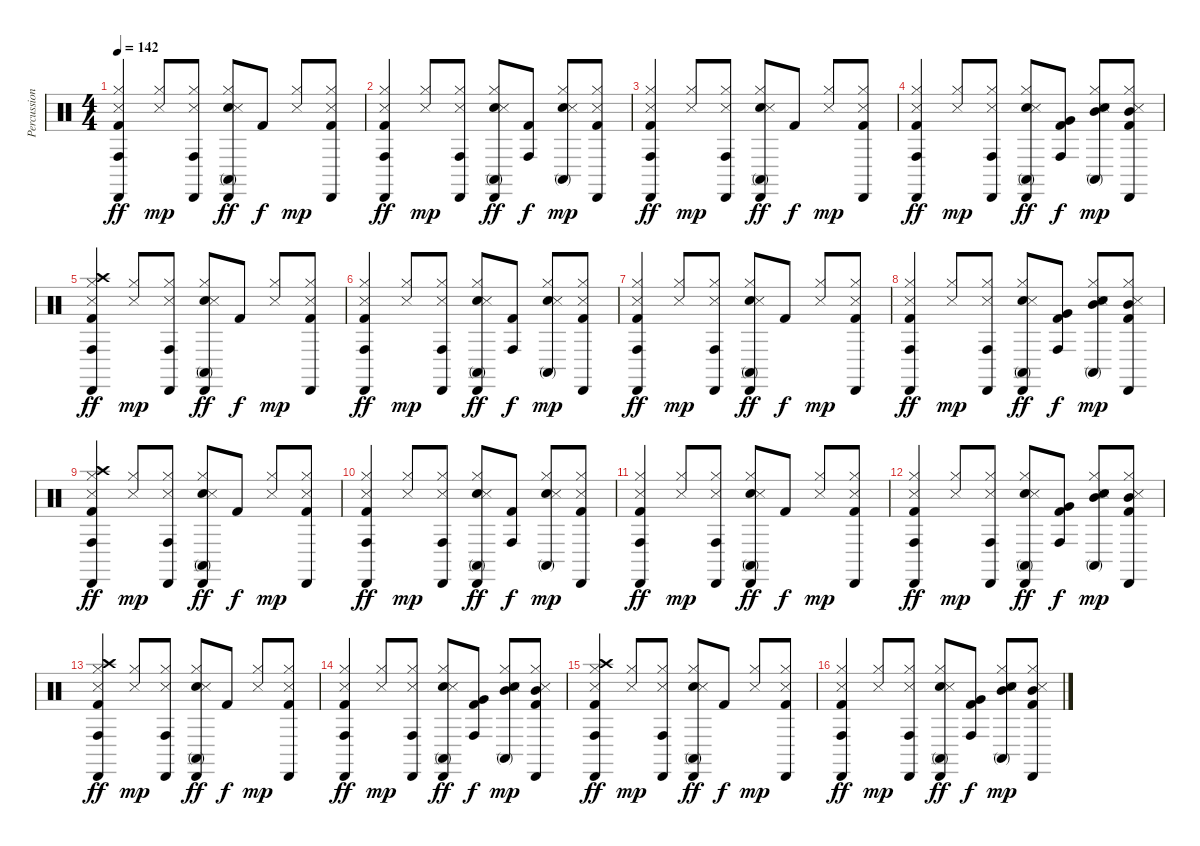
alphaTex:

\track ("Percussion Booster" "Percussion") {instrument percussion}
\staff {score}
\articulation defaults
\ts (4 4)
\tempo 142
\clef neutral
\ks c
("Conga high (hit)" "Cabasa (hit)" "Hi-Hat (closed)" "Snare (side stick) 3" "Kick (hit) 2").4{dy ff} ("Hi-Hat (closed)" "Snare (side stick) 3").8{dy mp} ("Conga high (hit)" "Cabasa (hit)" "Hi-Hat (closed)" "Snare (side stick) 3").8 ("Conga high (mute)" "Cabasa (hit)" "Hi-Hat (closed)" "Hand Clap (hit)" "Snare (side stick) 3").8{dy ff} "Kick (hit) 2".8{dy f} ("Hi-Hat (closed)" "Snare (side stick) 3").8{dy mp} ("Cabasa (hit)" "Hi-Hat (closed)" "Snare (side stick) 3" "Kick (hit) 2").8 |
("Conga high (hit)" "Cabasa (hit)" "Hi-Hat (closed)" "Snare (side stick) 3" "Kick (hit) 2").4{dy ff} ("Hi-Hat (closed)" "Snare (side stick) 3").8{dy mp} ("Conga high (hit)" "Cabasa (hit)" "Hi-Hat (closed)" "Snare (side stick) 3").8 ("Conga high (mute)" "Cabasa (hit)" "Hi-Hat (closed)" "Hand Clap (hit)" "Snare (side stick) 3").8{dy ff} ("Conga high (hit)" "Kick (hit) 2").8{dy f} ("Conga high (mute)" "Hi-Hat (closed)" "Hand Clap (hit)" "Snare (side stick) 3").8{dy mp} ("Cabasa (hit)" "Hi-Hat (closed)" "Snare (side stick) 3" "Kick (hit) 2").8 |
("Conga high (hit)" "Cabasa (hit)" "Hi-Hat (closed)" "Snare (side stick) 3" "Kick (hit) 2").4{dy ff} ("Hi-Hat (closed)" "Snare (side stick) 3").8{dy mp} ("Conga high (hit)" "Cabasa (hit)" "Hi-Hat (closed)" "Snare (side stick) 3").8 ("Conga high (mute)" "Cabasa (hit)" "Hi-Hat (closed)" "Hand Clap (hit)" "Snare (side stick) 3").8{dy ff} "Kick (hit) 2".8{dy f} ("Hi-Hat (closed)" "Snare (side stick) 3").8{dy mp} ("Cabasa (hit)" "Hi-Hat (closed)" "Snare (side stick) 3" "Kick (hit) 2").8 |
("Conga high (hit)" "Cabasa (hit)" "Hi-Hat (closed)" "Snare (side stick) 3" "Kick (hit) 2").4{dy ff} ("Hi-Hat (closed)" "Snare (side stick) 3").8{dy mp} ("Conga high (hit)" "Cabasa (hit)" "Hi-Hat (closed)" "Snare (side stick) 3").8 ("Conga high (mute)" "Cabasa (hit)" "Hi-Hat (closed)" "Hand Clap (hit)" "Snare (side stick) 3").8{dy ff} ("Conga high (hit)" "Very Low Tom (hit)" "Kick (hit) 2").8{dy f} ("Conga high (mute)" "Mid Tom (hit)" "Hi-Hat (closed)" "Hand Clap (hit)" "Snare (side stick) 3").8{dy mp} ("Cabasa (hit)" "Mid Tom (hit)" "Hi-Hat (closed)" "Snare (side stick) 3" "Kick (hit) 2").8 |
("Conga high (hit)" "Cabasa (hit)" "Crash high (hit)" "Hi-Hat (closed)" "Snare (side stick) 3" "Kick (hit) 2").4{dy ff} ("Hi-Hat (closed)" "Snare (side stick) 3").8{dy mp} ("Conga high (hit)" "Cabasa (hit)" "Hi-Hat (closed)" "Snare (side stick) 3").8 ("Conga high (mute)" "Cabasa (hit)" "Hi-Hat (closed)" "Hand Clap (hit)" "Snare (side stick) 3").8{dy ff} "Kick (hit) 2".8{dy f} ("Hi-Hat (closed)" "Snare (side stick) 3").8{dy mp} ("Cabasa (hit)" "Hi-Hat (closed)" "Snare (side stick) 3" "Kick (hit) 2").8 |
("Conga high (hit)" "Cabasa (hit)" "Hi-Hat (closed)" "Snare (side stick) 3" "Kick (hit) 2").4{dy ff} ("Hi-Hat (closed)" "Snare (side stick) 3").8{dy mp} ("Conga high (hit)" "Cabasa (hit)" "Hi-Hat (closed)" "Snare (side stick) 3").8 ("Conga high (mute)" "Cabasa (hit)" "Hi-Hat (closed)" "Hand Clap (hit)" "Snare (side stick) 3").8{dy ff} ("Conga high (hit)" "Kick (hit) 2").8{dy f} ("Conga high (mute)" "Hi-Hat (closed)" "Hand Clap (hit)" "Snare (side stick) 3").8{dy mp} ("Cabasa (hit)" "Hi-Hat (closed)" "Snare (side stick) 3" "Kick (hit) 2").8 |
("Conga high (hit)" "Cabasa (hit)" "Hi-Hat (closed)" "Snare (side stick) 3" "Kick (hit) 2").4{dy ff} ("Hi-Hat (closed)" "Snare (side stick) 3").8{dy mp} ("Conga high (hit)" "Cabasa (hit)" "Hi-Hat (closed)" "Snare (side stick) 3").8 ("Conga high (mute)" "Cabasa (hit)" "Hi-Hat (closed)" "Hand Clap (hit)" "Snare (side stick) 3").8{dy ff} "Kick (hit) 2".8{dy f} ("Hi-Hat (closed)" "Snare (side stick) 3").8{dy mp} ("Cabasa (hit)" "Hi-Hat (closed)" "Snare (side stick) 3" "Kick (hit) 2").8 |
("Conga high (hit)" "Cabasa (hit)" "Hi-Hat (closed)" "Snare (side stick) 3" "Kick (hit) 2").4{dy ff} ("Hi-Hat (closed)" "Snare (side stick) 3").8{dy mp} ("Conga high (hit)" "Cabasa (hit)" "Hi-Hat (closed)" "Snare (side stick) 3").8 ("Conga high (mute)" "Cabasa (hit)" "Hi-Hat (closed)" "Hand Clap (hit)" "Snare (side stick) 3").8{dy ff} ("Conga high (hit)" "Very Low Tom (hit)" "Kick (hit) 2").8{dy f} ("Conga high (mute)" "Mid Tom (hit)" "Hi-Hat (closed)" "Hand Clap (hit)" "Snare (side stick) 3").8{dy mp} ("Cabasa (hit)" "Mid Tom (hit)" "Hi-Hat (closed)" "Snare (side stick) 3" "Kick (hit) 2").8 |
("Conga high (hit)" "Cabasa (hit)" "Crash high (hit)" "Hi-Hat (closed)" "Snare (side stick) 3" "Kick (hit) 2").4{dy ff} ("Hi-Hat (closed)" "Snare (side stick) 3").8{dy mp} ("Conga high (hit)" "Cabasa (hit)" "Hi-Hat (closed)" "Snare (side stick) 3").8 ("Conga high (mute)" "Cabasa (hit)" "Hi-Hat (closed)" "Hand Clap (hit)" "Snare (side stick) 3").8{dy ff} "Kick (hit) 2".8{dy f} ("Hi-Hat (closed)" "Snare (side stick) 3").8{dy mp} ("Cabasa (hit)" "Hi-Hat (closed)" "Snare (side stick) 3" "Kick (hit) 2").8 |
("Conga high (hit)" "Cabasa (hit)" "Hi-Hat (closed)" "Snare (side stick) 3" "Kick (hit) 2").4{dy ff} ("Hi-Hat (closed)" "Snare (side stick) 3").8{dy mp} ("Conga high (hit)" "Cabasa (hit)" "Hi-Hat (closed)" "Snare (side stick) 3").8 ("Conga high (mute)" "Cabasa (hit)" "Hi-Hat (closed)" "Hand Clap (hit)" "Snare (side stick) 3").8{dy ff} ("Conga high (hit)" "Kick (hit) 2").8{dy f} ("Conga high (mute)" "Hi-Hat (closed)" "Hand Clap (hit)" "Snare (side stick) 3").8{dy mp} ("Cabasa (hit)" "Hi-Hat (closed)" "Snare (side stick) 3" "Kick (hit) 2").8 |
("Conga high (hit)" "Cabasa (hit)" "Hi-Hat (closed)" "Snare (side stick) 3" "Kick (hit) 2").4{dy ff} ("Hi-Hat (closed)" "Snare (side stick) 3").8{dy mp} ("Conga high (hit)" "Cabasa (hit)" "Hi-Hat (closed)" "Snare (side stick) 3").8 ("Conga high (mute)" "Cabasa (hit)" "Hi-Hat (closed)" "Hand Clap (hit)" "Snare (side stick) 3").8{dy ff} "Kick (hit) 2".8{dy f} ("Hi-Hat (closed)" "Snare (side stick) 3").8{dy mp} ("Cabasa (hit)" "Hi-Hat (closed)" "Snare (side stick) 3" "Kick (hit) 2").8 |
("Conga high (hit)" "Cabasa (hit)" "Hi-Hat (closed)" "Snare (side stick) 3" "Kick (hit) 2").4{dy ff} ("Hi-Hat (closed)" "Snare (side stick) 3").8{dy mp} ("Conga high (hit)" "Cabasa (hit)" "Hi-Hat (closed)" "Snare (side stick) 3").8 ("Conga high (mute)" "Cabasa (hit)" "Hi-Hat (closed)" "Hand Clap (hit)" "Snare (side stick) 3").8{dy ff} ("Conga high (hit)" "Very Low Tom (hit)" "Kick (hit) 2").8{dy f} ("Conga high (mute)" "Mid Tom (hit)" "Hi-Hat (closed)" "Hand Clap (hit)" "Snare (side stick) 3").8{dy mp} ("Cabasa (hit)" "Mid Tom (hit)" "Hi-Hat (closed)" "Snare (side stick) 3" "Kick (hit) 2").8 |
("Conga high (hit)" "Cabasa (hit)" "Crash high (hit)" "Hi-Hat (closed)" "Snare (side stick) 3" "Kick (hit) 2").4{dy ff} ("Hi-Hat (closed)" "Snare (side stick) 3").8{dy mp} ("Conga high (hit)" "Cabasa (hit)" "Hi-Hat (closed)" "Snare (side stick) 3").8 ("Conga high (mute)" "Cabasa (hit)" "Hi-Hat (closed)" "Hand Clap (hit)" "Snare (side stick) 3").8{dy ff} "Kick (hit) 2".8{dy f} ("Hi-Hat (closed)" "Snare (side stick) 3").8{dy mp} ("Cabasa (hit)" "Hi-Hat (closed)" "Snare (side stick) 3" "Kick (hit) 2").8 |
("Conga high (hit)" "Cabasa (hit)" "Hi-Hat (closed)" "Snare (side stick) 3" "Kick (hit) 2").4{dy ff} ("Hi-Hat (closed)" "Snare (side stick) 3").8{dy mp} ("Conga high (hit)" "Cabasa (hit)" "Hi-Hat (closed)" "Snare (side stick) 3").8 ("Conga high (mute)" "Cabasa (hit)" "Hi-Hat (closed)" "Hand Clap (hit)" "Snare (side stick) 3").8{dy ff} ("Conga high (hit)" "Very Low Tom (hit)" "Kick (hit) 2").8{dy f} ("Conga high (mute)" "Mid Tom (hit)" "Hi-Hat (closed)" "Hand Clap (hit)" "Snare (side stick) 3").8{dy mp} ("Cabasa (hit)" "Mid Tom (hit)" "Hi-Hat (closed)" "Snare (side stick) 3" "Kick (hit) 2").8 |
("Conga high (hit)" "Cabasa (hit)" "Crash high (hit)" "Hi-Hat (closed)" "Snare (side stick) 3" "Kick (hit) 2").4{dy ff} ("Hi-Hat (closed)" "Snare (side stick) 3").8{dy mp} ("Conga high (hit)" "Cabasa (hit)" "Hi-Hat (closed)" "Snare (side stick) 3").8 ("Conga high (mute)" "Cabasa (hit)" "Hi-Hat (closed)" "Hand Clap (hit)" "Snare (side stick) 3").8{dy ff} "Kick (hit) 2".8{dy f} ("Hi-Hat (closed)" "Snare (side stick) 3").8{dy mp} ("Cabasa (hit)" "Hi-Hat (closed)" "Snare (side stick) 3" "Kick (hit) 2").8 |
("Conga high (hit)" "Cabasa (hit)" "Hi-Hat (closed)" "Snare (side stick) 3" "Kick (hit) 2").4{dy ff} ("Hi-Hat (closed)" "Snare (side stick) 3").8{dy mp} ("Conga high (hit)" "Cabasa (hit)" "Hi-Hat (closed)" "Snare (side stick) 3").8 ("Conga high (mute)" "Cabasa (hit)" "Hi-Hat (closed)" "Hand Clap (hit)" "Snare (side stick) 3").8{dy ff} ("Conga high (hit)" "Very Low Tom (hit)" "Kick (hit) 2").8{dy f} ("Conga high (mute)" "Mid Tom (hit)" "Hi-Hat (closed)" "Hand Clap (hit)" "Snare (side stick) 3").8{dy mp} ("Cabasa (hit)" "Mid Tom (hit)" "Hi-Hat (closed)" "Snare (side stick) 3" "Kick (hit) 2").8
